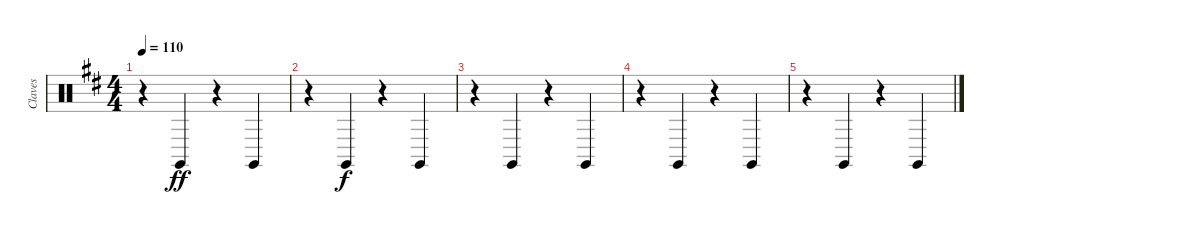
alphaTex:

\track ("Claves" "Claves") {instrument percussion}
\staff {score}
\articulation defaults
\ts (4 4)
\tempo 110
\clef neutral
\ks d
r.4{dy ff} "Claves (hit)".4 r.4 "Claves (hit)".4 |
r.4 "Claves (hit)".4{dy f} r.4 "Claves (hit)".4 |
r.4 "Claves (hit)".4 r.4 "Claves (hit)".4 |
r.4 "Claves (hit)".4 r.4 "Claves (hit)".4 |
r.4 "Claves (hit)".4 r.4 "Claves (hit)".4
